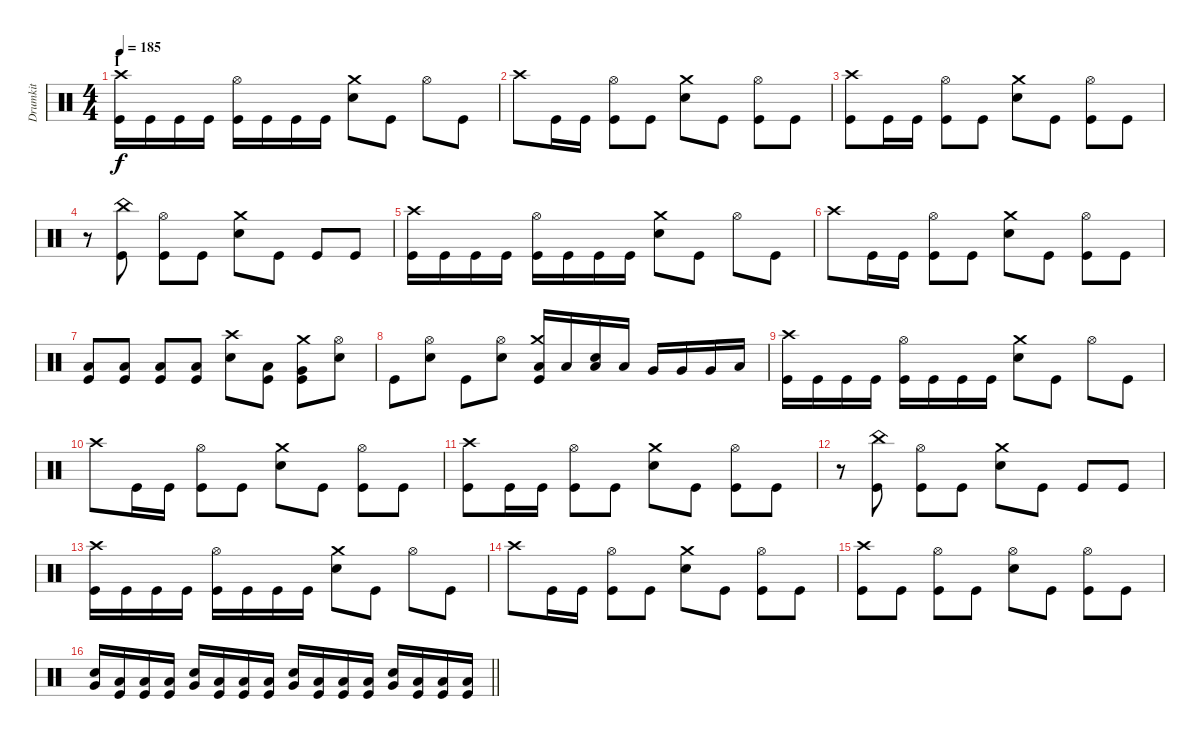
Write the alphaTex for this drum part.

\track ("Drumkit" "Drumkit") {instrument percussion}
\staff {score}
\articulation defaults
\ts (4 4)
\section ("" "I")
\tempo 185
\clef neutral
\ks c
("Kick (hit)" "Crash high (hit)").16{dy f} "Kick (hit)".16 "Kick (hit)".16 "Kick (hit)".16 ("Kick (hit)" "Hi-Hat (open)").16 "Kick (hit)".16 "Kick (hit)".16 "Kick (hit)".16 ("Snare (hit) 2" "Crash medium (hit)").8 "Kick (hit)".8 "Hi-Hat (open)".8 "Kick (hit)".8 |
"Crash high (hit)".8 "Kick (hit)".16 "Kick (hit)".16 ("Kick (hit)" "Hi-Hat (open)").8 "Kick (hit)".8 ("Snare (hit) 2" "Crash medium (hit)").8 "Kick (hit)".8 ("Kick (hit)" "Hi-Hat (open)").8 "Kick (hit)".8 |
("Kick (hit)" "Crash high (hit)").8 "Kick (hit)".16 "Kick (hit)".16 ("Kick (hit)" "Hi-Hat (open)").8 "Kick (hit)".8 ("Snare (hit) 2" "Crash medium (hit)").8 "Kick (hit)".8 ("Kick (hit)" "Hi-Hat (open)").8 "Kick (hit)".8 |
r.8 ("Kick (hit)" "China (hit)").8 ("Kick (hit)" "Hi-Hat (open)").8 "Kick (hit)".8 ("Snare (hit) 2" "Crash medium (hit)").8 "Kick (hit)".8 "Kick (hit)".8 "Kick (hit)".8 |
("Kick (hit)" "Crash high (hit)").16 "Kick (hit)".16 "Kick (hit)".16 "Kick (hit)".16 ("Kick (hit)" "Hi-Hat (open)").16 "Kick (hit)".16 "Kick (hit)".16 "Kick (hit)".16 ("Snare (hit) 2" "Crash medium (hit)").8 "Kick (hit)".8 "Hi-Hat (open)".8 "Kick (hit)".8 |
"Crash high (hit)".8 "Kick (hit)".16 "Kick (hit)".16 ("Kick (hit)" "Hi-Hat (open)").8 "Kick (hit)".8 ("Snare (hit) 2" "Crash medium (hit)").8 "Kick (hit)".8 ("Kick (hit)" "Hi-Hat (open)").8 "Kick (hit)".8 |
("Kick (hit)" "Low Floor Tom (hit)").8 ("Kick (hit)" "Low Floor Tom (hit)").8 ("Kick (hit)" "Low Floor Tom (hit)").8 ("Kick (hit)" "Low Floor Tom (hit)").8 ("Snare (hit) 2" "Crash high (hit)").8 ("Kick (hit)" "Low Floor Tom (hit)").8 ("Kick (hit)" "Crash medium (hit)" "Very Low Tom (hit)").8 ("Snare (hit) 2" "Hi-Hat (open)").8 |
"Kick (hit)".8 ("Snare (hit) 2" "Hi-Hat (open)").8 "Kick (hit)".8 ("Snare (hit) 2" "Hi-Hat (open)").8 ("Low Floor Tom (hit)" "Kick (hit)" "Crash medium (hit)").16 "Low Tom (hit)".16 ("Low Tom (hit)" "Snare (hit) 2").16 "Low Tom (hit)".16 "Very Low Tom (hit)".16 "Very Low Tom (hit)".16 "Very Low Tom (hit)".16 "Low Floor Tom (hit)".16 |
("Kick (hit)" "Crash high (hit)").16 "Kick (hit)".16 "Kick (hit)".16 "Kick (hit)".16 ("Kick (hit)" "Hi-Hat (open)").16 "Kick (hit)".16 "Kick (hit)".16 "Kick (hit)".16 ("Snare (hit) 2" "Crash medium (hit)").8 "Kick (hit)".8 "Hi-Hat (open)".8 "Kick (hit)".8 |
"Crash high (hit)".8 "Kick (hit)".16 "Kick (hit)".16 ("Kick (hit)" "Hi-Hat (open)").8 "Kick (hit)".8 ("Snare (hit) 2" "Crash medium (hit)").8 "Kick (hit)".8 ("Kick (hit)" "Hi-Hat (open)").8 "Kick (hit)".8 |
("Kick (hit)" "Crash high (hit)").8 "Kick (hit)".16 "Kick (hit)".16 ("Kick (hit)" "Hi-Hat (open)").8 "Kick (hit)".8 ("Snare (hit) 2" "Crash medium (hit)").8 "Kick (hit)".8 ("Kick (hit)" "Hi-Hat (open)").8 "Kick (hit)".8 |
r.8 ("Kick (hit)" "China (hit)").8 ("Kick (hit)" "Hi-Hat (open)").8 "Kick (hit)".8 ("Snare (hit) 2" "Crash medium (hit)").8 "Kick (hit)".8 "Kick (hit)".8 "Kick (hit)".8 |
("Kick (hit)" "Crash high (hit)").16 "Kick (hit)".16 "Kick (hit)".16 "Kick (hit)".16 ("Kick (hit)" "Hi-Hat (open)").16 "Kick (hit)".16 "Kick (hit)".16 "Kick (hit)".16 ("Snare (hit) 2" "Crash medium (hit)").8 "Kick (hit)".8 "Hi-Hat (open)".8 "Kick (hit)".8 |
"Crash high (hit)".8 "Kick (hit)".16 "Kick (hit)".16 ("Kick (hit)" "Hi-Hat (open)").8 "Kick (hit)".8 ("Snare (hit) 2" "Crash medium (hit)").8 "Kick (hit)".8 ("Kick (hit)" "Hi-Hat (open)").8 "Kick (hit)".8 |
("Kick (hit)" "Crash high (hit)").8 "Kick (hit)".8 ("Kick (hit)" "Hi-Hat (open)").8 "Kick (hit)".8 ("Snare (hit) 2" "Hi-Hat (open)").8 "Kick (hit)".8 ("Kick (hit)" "Hi-Hat (open)").8 "Kick (hit)".8 |
\barLineRight lightlight
("Very Low Tom (hit)" "Snare (hit) 2").16 ("Low Floor Tom (hit)" "Kick (hit)").16 ("Low Floor Tom (hit)" "Kick (hit)").16 ("Low Floor Tom (hit)" "Kick (hit)").16 ("Very Low Tom (hit)" "Snare (hit) 2").16 ("Low Floor Tom (hit)" "Kick (hit)").16 ("Low Floor Tom (hit)" "Kick (hit)").16 ("Low Floor Tom (hit)" "Kick (hit)").16 ("Very Low Tom (hit)" "Snare (hit) 2").16 ("Low Floor Tom (hit)" "Kick (hit)").16 ("Low Floor Tom (hit)" "Kick (hit)").16 ("Low Floor Tom (hit)" "Kick (hit)").16 ("Very Low Tom (hit)" "Snare (hit) 2").16 ("Low Floor Tom (hit)" "Kick (hit)").16 ("Low Floor Tom (hit)" "Kick (hit)").16 ("Low Floor Tom (hit)" "Kick (hit)").16
